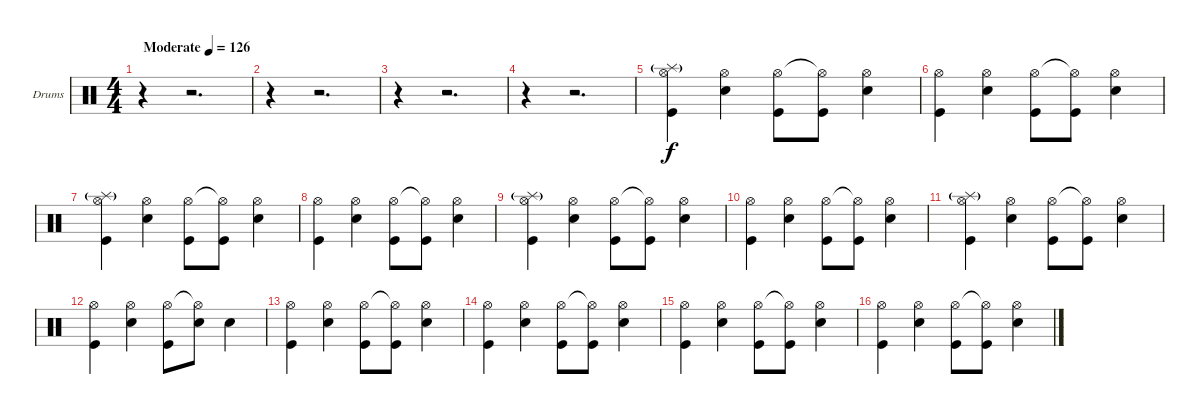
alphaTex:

\bracketExtendMode groupsimilarinstruments
\firstSystemTrackNameOrientation horizontal
\otherSystemsTrackNameOrientation horizontal
\track ("Drumkit" "Drums") {instrument percussion}
\staff {score}
\articulation defaults
\ts (4 4)
\beaming (8 2 2 2 2)
\tempo (126 "Moderate")
\clef neutral
\ks c
r.4{dy f} r.2{d} |
r.4 r.2{d} |
r.4 r.2{d} |
r.4 r.2{d} |
("Kick (hit)" "Hi-Hat (open)" "Splash (hit)"{g}).4 ("Snare (hit) 2" "Hi-Hat (open)").4 ("Kick (hit)" "Hi-Hat (open)").8 ("Kick (hit)" "Hi-Hat (open)"{t}).8 ("Snare (hit) 2" "Hi-Hat (open)").4 |
("Kick (hit)" "Hi-Hat (open)").4 ("Snare (hit) 2" "Hi-Hat (open)").4 ("Kick (hit)" "Hi-Hat (open)").8 ("Kick (hit)" "Hi-Hat (open)"{t}).8 ("Snare (hit) 2" "Hi-Hat (open)").4 |
("Kick (hit)" "Hi-Hat (open)" "Splash (hit)"{g}).4 ("Snare (hit) 2" "Hi-Hat (open)").4 ("Kick (hit)" "Hi-Hat (open)").8 ("Kick (hit)" "Hi-Hat (open)"{t}).8 ("Snare (hit) 2" "Hi-Hat (open)").4 |
("Kick (hit)" "Hi-Hat (open)").4 ("Snare (hit) 2" "Hi-Hat (open)").4 ("Kick (hit)" "Hi-Hat (open)").8 ("Kick (hit)" "Hi-Hat (open)"{t}).8 ("Snare (hit) 2" "Hi-Hat (open)").4 |
("Kick (hit)" "Hi-Hat (open)" "Splash (hit)"{g}).4 ("Snare (hit) 2" "Hi-Hat (open)").4 ("Kick (hit)" "Hi-Hat (open)").8 ("Kick (hit)" "Hi-Hat (open)"{t}).8 ("Snare (hit) 2" "Hi-Hat (open)").4 |
("Kick (hit)" "Hi-Hat (open)").4 ("Snare (hit) 2" "Hi-Hat (open)").4 ("Kick (hit)" "Hi-Hat (open)").8 ("Kick (hit)" "Hi-Hat (open)"{t}).8 ("Snare (hit) 2" "Hi-Hat (open)").4 |
("Kick (hit)" "Hi-Hat (open)" "Splash (hit)"{g}).4 ("Snare (hit) 2" "Hi-Hat (open)").4 ("Kick (hit)" "Hi-Hat (open)").8 ("Kick (hit)" "Hi-Hat (open)"{t}).8 ("Snare (hit) 2" "Hi-Hat (open)").4 |
("Kick (hit)" "Hi-Hat (open)").4 ("Snare (hit) 2" "Hi-Hat (open)").4 ("Kick (hit)" "Hi-Hat (open)").8 ("Snare (hit) 2" "Hi-Hat (open)"{t}).8 "Snare (hit) 2".4 |
("Kick (hit)" "Hi-Hat (open)").4 ("Snare (hit) 2" "Hi-Hat (open)").4 ("Kick (hit)" "Hi-Hat (open)").8 ("Kick (hit)" "Hi-Hat (open)"{t}).8 ("Snare (hit) 2" "Hi-Hat (open)").4 |
("Kick (hit)" "Hi-Hat (open)").4 ("Snare (hit) 2" "Hi-Hat (open)").4 ("Kick (hit)" "Hi-Hat (open)").8 ("Kick (hit)" "Hi-Hat (open)"{t}).8 ("Snare (hit) 2" "Hi-Hat (open)").4 |
("Kick (hit)" "Hi-Hat (open)").4 ("Snare (hit) 2" "Hi-Hat (open)").4 ("Kick (hit)" "Hi-Hat (open)").8 ("Kick (hit)" "Hi-Hat (open)"{t}).8 ("Snare (hit) 2" "Hi-Hat (open)").4 |
("Kick (hit)" "Hi-Hat (open)").4 ("Snare (hit) 2" "Hi-Hat (open)").4 ("Kick (hit)" "Hi-Hat (open)").8 ("Kick (hit)" "Hi-Hat (open)"{t}).8 ("Snare (hit) 2" "Hi-Hat (open)").4
